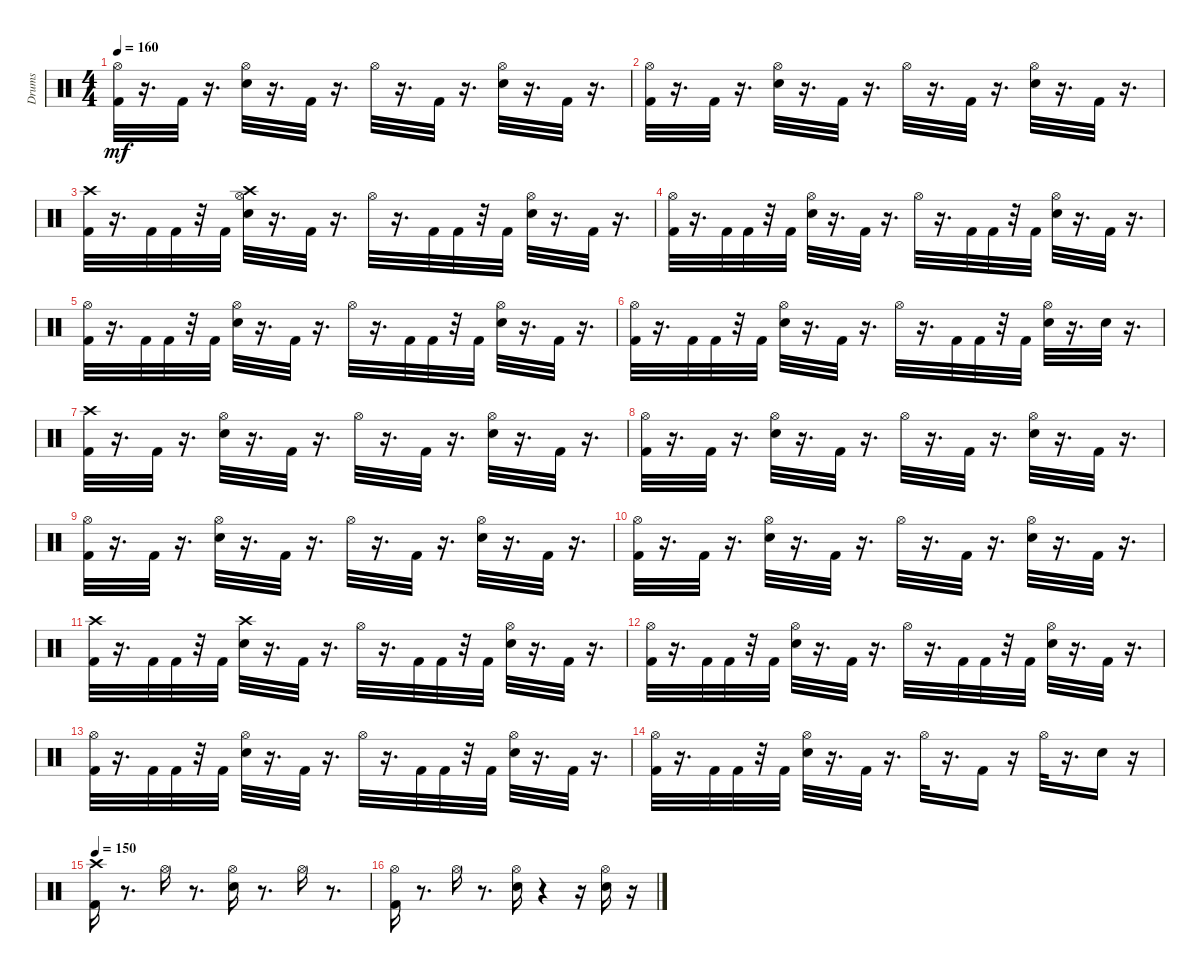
\track ("Drums               " "Drums     ") {instrument percussion}
\staff {score}
\articulation defaults
\ts (4 4)
\tempo 160
\clef neutral
\ks c
("Kick (hit) 2" "Hi-Hat (open)").32{dy mf} r.16{d} "Kick (hit) 2".32 r.16{d} ("Hi-Hat (open)" "Snare (hit) 2").32 r.16{d} "Kick (hit) 2".32 r.16{d} "Hi-Hat (open)".32 r.16{d} "Kick (hit) 2".32 r.16{d} ("Hi-Hat (open)" "Snare (hit) 2").32 r.16{d} "Kick (hit) 2".32 r.16{d} |
("Kick (hit) 2" "Hi-Hat (open)").32 r.16{d} "Kick (hit) 2".32 r.16{d} ("Hi-Hat (open)" "Snare (hit) 2").32 r.16{d} "Kick (hit) 2".32 r.16{d} "Hi-Hat (open)".32 r.16{d} "Kick (hit) 2".32 r.16{d} ("Hi-Hat (open)" "Snare (hit) 2").32 r.16{d} "Kick (hit) 2".32 r.16{d} |
("Kick (hit) 2" "Crash high (hit)").32 r.16{d} "Kick (hit) 2".32 "Kick (hit) 2".32 r.32 "Kick (hit) 2".32 ("Hi-Hat (open)" "Snare (hit) 2" "Crash high (hit)").32 r.16{d} "Kick (hit) 2".32 r.16{d} "Hi-Hat (open)".32 r.16{d} "Kick (hit) 2".32 "Kick (hit) 2".32 r.32 "Kick (hit) 2".32 ("Hi-Hat (open)" "Snare (hit) 2").32 r.16{d} "Kick (hit) 2".32 r.16{d} |
("Kick (hit) 2" "Hi-Hat (open)").32 r.16{d} "Kick (hit) 2".32 "Kick (hit) 2".32 r.32 "Kick (hit) 2".32 ("Hi-Hat (open)" "Snare (hit) 2").32 r.16{d} "Kick (hit) 2".32 r.16{d} "Hi-Hat (open)".32 r.16{d} "Kick (hit) 2".32 "Kick (hit) 2".32 r.32 "Kick (hit) 2".32 ("Hi-Hat (open)" "Snare (hit) 2").32 r.16{d} "Kick (hit) 2".32 r.16{d} |
("Kick (hit) 2" "Hi-Hat (open)").32 r.16{d} "Kick (hit) 2".32 "Kick (hit) 2".32 r.32 "Kick (hit) 2".32 ("Hi-Hat (open)" "Snare (hit) 2").32 r.16{d} "Kick (hit) 2".32 r.16{d} "Hi-Hat (open)".32 r.16{d} "Kick (hit) 2".32 "Kick (hit) 2".32 r.32 "Kick (hit) 2".32 ("Hi-Hat (open)" "Snare (hit) 2").32 r.16{d} "Kick (hit) 2".32 r.16{d} |
("Kick (hit) 2" "Hi-Hat (open)").32 r.16{d} "Kick (hit) 2".32 "Kick (hit) 2".32 r.32 "Kick (hit) 2".32 ("Hi-Hat (open)" "Snare (hit) 2").32 r.16{d} "Kick (hit) 2".32 r.16{d} "Hi-Hat (open)".32 r.16{d} "Kick (hit) 2".32 "Kick (hit) 2".32 r.32 "Kick (hit) 2".32 ("Hi-Hat (open)" "Snare (hit) 2").32 r.16{d} "Snare (hit) 2".32 r.16{d} |
("Kick (hit) 2" "Crash high (hit)").32 r.16{d} "Kick (hit) 2".32 r.16{d} ("Hi-Hat (open)" "Snare (hit) 2").32 r.16{d} "Kick (hit) 2".32 r.16{d} "Hi-Hat (open)".32 r.16{d} "Kick (hit) 2".32 r.16{d} ("Hi-Hat (open)" "Snare (hit) 2").32 r.16{d} "Kick (hit) 2".32 r.16{d} |
("Kick (hit) 2" "Hi-Hat (open)").32 r.16{d} "Kick (hit) 2".32 r.16{d} ("Hi-Hat (open)" "Snare (hit) 2").32 r.16{d} "Kick (hit) 2".32 r.16{d} "Hi-Hat (open)".32 r.16{d} "Kick (hit) 2".32 r.16{d} ("Hi-Hat (open)" "Snare (hit) 2").32 r.16{d} "Kick (hit) 2".32 r.16{d} |
("Kick (hit) 2" "Hi-Hat (open)").32 r.16{d} "Kick (hit) 2".32 r.16{d} ("Hi-Hat (open)" "Snare (hit) 2").32 r.16{d} "Kick (hit) 2".32 r.16{d} "Hi-Hat (open)".32 r.16{d} "Kick (hit) 2".32 r.16{d} ("Hi-Hat (open)" "Snare (hit) 2").32 r.16{d} "Kick (hit) 2".32 r.16{d} |
("Kick (hit) 2" "Hi-Hat (open)").32 r.16{d} "Kick (hit) 2".32 r.16{d} ("Hi-Hat (open)" "Snare (hit) 2").32 r.16{d} "Kick (hit) 2".32 r.16{d} "Hi-Hat (open)".32 r.16{d} "Kick (hit) 2".32 r.16{d} ("Hi-Hat (open)" "Snare (hit) 2").32 r.16{d} "Kick (hit) 2".32 r.16{d} |
("Kick (hit) 2" "Crash high (hit)").32 r.16{d} "Kick (hit) 2".32 "Kick (hit) 2".32 r.32 "Kick (hit) 2".32 ("Snare (hit) 2" "Crash high (hit)").32 r.16{d} "Kick (hit) 2".32 r.16{d} "Hi-Hat (open)".32 r.16{d} "Kick (hit) 2".32 "Kick (hit) 2".32 r.32 "Kick (hit) 2".32 ("Hi-Hat (open)" "Snare (hit) 2").32 r.16{d} "Kick (hit) 2".32 r.16{d} |
("Kick (hit) 2" "Hi-Hat (open)").32 r.16{d} "Kick (hit) 2".32 "Kick (hit) 2".32 r.32 "Kick (hit) 2".32 ("Hi-Hat (open)" "Snare (hit) 2").32 r.16{d} "Kick (hit) 2".32 r.16{d} "Hi-Hat (open)".32 r.16{d} "Kick (hit) 2".32 "Kick (hit) 2".32 r.32 "Kick (hit) 2".32 ("Hi-Hat (open)" "Snare (hit) 2").32 r.16{d} "Kick (hit) 2".32 r.16{d} |
("Kick (hit) 2" "Hi-Hat (open)").32 r.16{d} "Kick (hit) 2".32 "Kick (hit) 2".32 r.32 "Kick (hit) 2".32 ("Hi-Hat (open)" "Snare (hit) 2").32 r.16{d} "Kick (hit) 2".32 r.16{d} "Hi-Hat (open)".32 r.16{d} "Kick (hit) 2".32 "Kick (hit) 2".32 r.32 "Kick (hit) 2".32 ("Hi-Hat (open)" "Snare (hit) 2").32 r.16{d} "Kick (hit) 2".32 r.16{d} |
("Kick (hit) 2" "Hi-Hat (open)").32 r.16{d} "Kick (hit) 2".32 "Kick (hit) 2".32 r.32 "Kick (hit) 2".32 ("Hi-Hat (open)" "Snare (hit) 2").32 r.16{d} "Kick (hit) 2".32 r.16{d} "Hi-Hat (open)".32 r.16{d} "Kick (hit) 2".16 r.16 "Hi-Hat (open)".32 r.16{d} "Snare (hit) 2".16 r.16 |
\tempo 150
("Crash high (hit)" "Kick (hit) 2").16 r.8{d} "Hi-Hat (open)".16 r.8{d} ("Hi-Hat (open)" "Snare (hit) 2").16 r.8{d} "Hi-Hat (open)".16 r.8{d} |
("Kick (hit) 2" "Hi-Hat (open)").16 r.8{d} "Hi-Hat (open)".16 r.8{d} ("Hi-Hat (open)" "Snare (hit) 2").16 r.4 r.16 ("Snare (hit) 2" "Hi-Hat (open)").16 r.16
